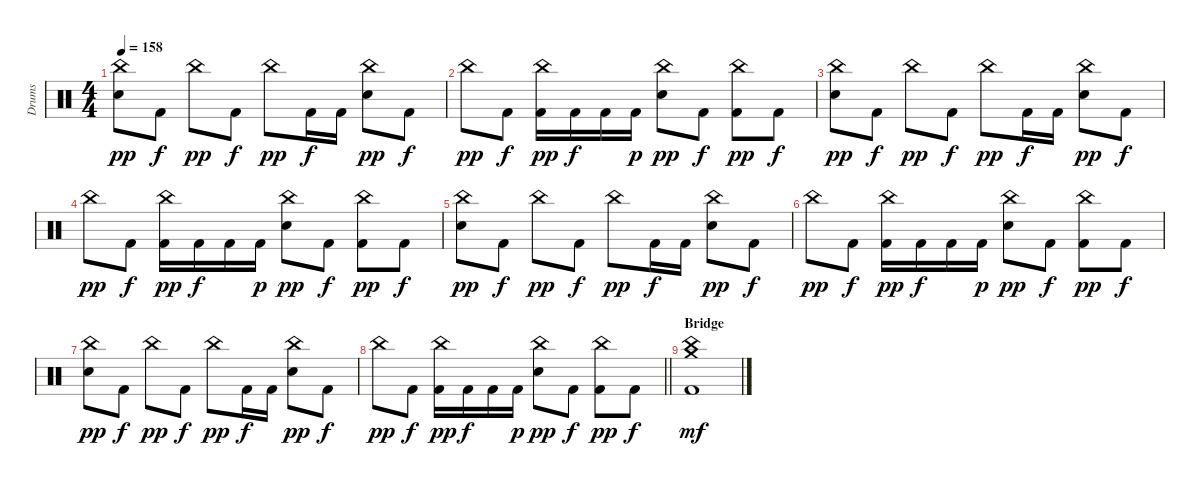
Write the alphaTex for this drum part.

\track ("Drums" "Drums") {instrument percussion}
\staff {score}
\articulation defaults
\ts (4 4)
\tempo 158
\clef neutral
\ks c
("China (hit)" "Snare (hit) 2").8{dy pp} "Kick (hit) 2".8{dy f} "China (hit)".8{dy pp} "Kick (hit) 2".8{dy f} "China (hit)".8{dy pp} "Kick (hit) 2".16{dy f} "Kick (hit) 2".16 ("China (hit)" "Snare (hit) 2").8{dy pp} "Kick (hit) 2".8{dy f} |
"China (hit)".8{dy pp} "Kick (hit) 2".8{dy f} ("China (hit)" "Kick (hit) 2").16{dy pp} "Kick (hit) 2".16{dy f} "Kick (hit) 2".16 "Kick (hit) 2".16{dy p} ("China (hit)" "Snare (hit) 2").8{dy pp} "Kick (hit) 2".8{dy f} ("China (hit)" "Kick (hit) 2").8{dy pp} "Kick (hit) 2".8{dy f} |
("China (hit)" "Snare (hit) 2").8{dy pp} "Kick (hit) 2".8{dy f} "China (hit)".8{dy pp} "Kick (hit) 2".8{dy f} "China (hit)".8{dy pp} "Kick (hit) 2".16{dy f} "Kick (hit) 2".16 ("China (hit)" "Snare (hit) 2").8{dy pp} "Kick (hit) 2".8{dy f} |
"China (hit)".8{dy pp} "Kick (hit) 2".8{dy f} ("China (hit)" "Kick (hit) 2").16{dy pp} "Kick (hit) 2".16{dy f} "Kick (hit) 2".16 "Kick (hit) 2".16{dy p} ("China (hit)" "Snare (hit) 2").8{dy pp} "Kick (hit) 2".8{dy f} ("China (hit)" "Kick (hit) 2").8{dy pp} "Kick (hit) 2".8{dy f} |
("China (hit)" "Snare (hit) 2").8{dy pp} "Kick (hit) 2".8{dy f} "China (hit)".8{dy pp} "Kick (hit) 2".8{dy f} "China (hit)".8{dy pp} "Kick (hit) 2".16{dy f} "Kick (hit) 2".16 ("China (hit)" "Snare (hit) 2").8{dy pp} "Kick (hit) 2".8{dy f} |
"China (hit)".8{dy pp} "Kick (hit) 2".8{dy f} ("China (hit)" "Kick (hit) 2").16{dy pp} "Kick (hit) 2".16{dy f} "Kick (hit) 2".16 "Kick (hit) 2".16{dy p} ("China (hit)" "Snare (hit) 2").8{dy pp} "Kick (hit) 2".8{dy f} ("China (hit)" "Kick (hit) 2").8{dy pp} "Kick (hit) 2".8{dy f} |
("China (hit)" "Snare (hit) 2").8{dy pp} "Kick (hit) 2".8{dy f} "China (hit)".8{dy pp} "Kick (hit) 2".8{dy f} "China (hit)".8{dy pp} "Kick (hit) 2".16{dy f} "Kick (hit) 2".16 ("China (hit)" "Snare (hit) 2").8{dy pp} "Kick (hit) 2".8{dy f} |
\barLineRight lightlight "China (hit)".8{dy pp} "Kick (hit) 2".8{dy f}
("China (hit)" "Kick (hit) 2").16{dy pp} "Kick (hit) 2".16{dy f} "Kick (hit) 2".16 "Kick (hit) 2".16{dy p} ("China (hit)" "Snare (hit) 2").8{dy pp} "Kick (hit) 2".8{dy f} ("China (hit)" "Kick (hit) 2").8{dy pp} "Kick (hit) 2".8{dy f} |
\section ("" "Bridge")
("China (hit)" "Crash medium (hit)" "Kick (hit) 2").1{dy mf}
